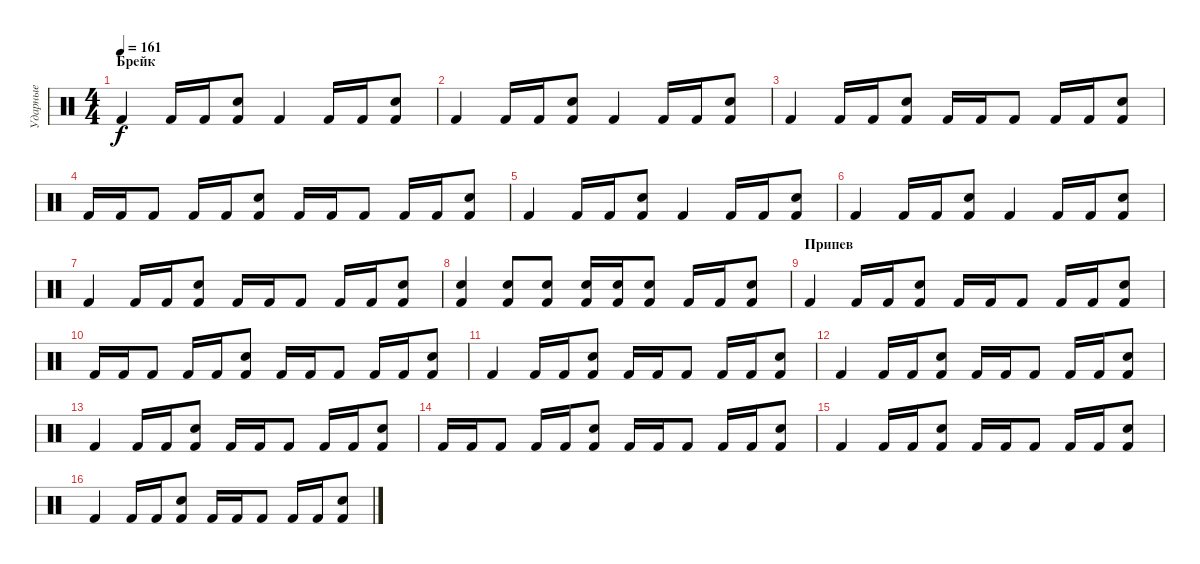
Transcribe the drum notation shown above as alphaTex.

\track ("Ударные" "Ударные") {instrument percussion}
\staff {score}
\articulation defaults
\ts (4 4)
\section ("" "Брейк")
\tempo 161
\clef neutral
\ks c "Kick (hit) 2".4{dy f} "Kick (hit) 2".16 "Kick (hit) 2".16
("Snare (hit) 2" "Kick (hit) 2").8 "Kick (hit) 2".4 "Kick (hit) 2".16 "Kick (hit) 2".16 ("Snare (hit) 2" "Kick (hit) 2").8 |
"Kick (hit) 2".4 "Kick (hit) 2".16 "Kick (hit) 2".16 ("Snare (hit) 2" "Kick (hit) 2").8 "Kick (hit) 2".4 "Kick (hit) 2".16 "Kick (hit) 2".16 ("Snare (hit) 2" "Kick (hit) 2").8 |
"Kick (hit) 2".4 "Kick (hit) 2".16 "Kick (hit) 2".16 ("Snare (hit) 2" "Kick (hit) 2").8 "Kick (hit) 2".16 "Kick (hit) 2".16 "Kick (hit) 2".8 "Kick (hit) 2".16 "Kick (hit) 2".16 ("Snare (hit) 2" "Kick (hit) 2").8 |
"Kick (hit) 2".16 "Kick (hit) 2".16 "Kick (hit) 2".8 "Kick (hit) 2".16 "Kick (hit) 2".16 ("Snare (hit) 2" "Kick (hit) 2").8 "Kick (hit) 2".16 "Kick (hit) 2".16 "Kick (hit) 2".8 "Kick (hit) 2".16 "Kick (hit) 2".16 ("Snare (hit) 2" "Kick (hit) 2").8 |
"Kick (hit) 2".4 "Kick (hit) 2".16 "Kick (hit) 2".16 ("Snare (hit) 2" "Kick (hit) 2").8 "Kick (hit) 2".4 "Kick (hit) 2".16 "Kick (hit) 2".16 ("Snare (hit) 2" "Kick (hit) 2").8 |
"Kick (hit) 2".4 "Kick (hit) 2".16 "Kick (hit) 2".16 ("Snare (hit) 2" "Kick (hit) 2").8 "Kick (hit) 2".4 "Kick (hit) 2".16 "Kick (hit) 2".16 ("Snare (hit) 2" "Kick (hit) 2").8 |
"Kick (hit) 2".4 "Kick (hit) 2".16 "Kick (hit) 2".16 ("Snare (hit) 2" "Kick (hit) 2").8 "Kick (hit) 2".16 "Kick (hit) 2".16 "Kick (hit) 2".8 "Kick (hit) 2".16 "Kick (hit) 2".16 ("Snare (hit) 2" "Kick (hit) 2").8 |
("Snare (hit) 2" "Kick (hit) 2").4 ("Snare (hit) 2" "Kick (hit) 2").8 ("Snare (hit) 2" "Kick (hit) 2").8 ("Snare (hit) 2" "Kick (hit) 2").16 ("Snare (hit) 2" "Kick (hit) 2").16 ("Snare (hit) 2" "Kick (hit) 2").8 "Kick (hit) 2".16 "Kick (hit) 2".16 ("Snare (hit) 2" "Kick (hit) 2").8 |
\section ("" "Припев")
"Kick (hit) 2".4 "Kick (hit) 2".16 "Kick (hit) 2".16 ("Snare (hit) 2" "Kick (hit) 2").8 "Kick (hit) 2".16 "Kick (hit) 2".16 "Kick (hit) 2".8 "Kick (hit) 2".16 "Kick (hit) 2".16 ("Snare (hit) 2" "Kick (hit) 2").8 |
"Kick (hit) 2".16 "Kick (hit) 2".16 "Kick (hit) 2".8 "Kick (hit) 2".16 "Kick (hit) 2".16 ("Snare (hit) 2" "Kick (hit) 2").8 "Kick (hit) 2".16 "Kick (hit) 2".16 "Kick (hit) 2".8 "Kick (hit) 2".16 "Kick (hit) 2".16 ("Snare (hit) 2" "Kick (hit) 2").8 |
"Kick (hit) 2".4 "Kick (hit) 2".16 "Kick (hit) 2".16 ("Snare (hit) 2" "Kick (hit) 2").8 "Kick (hit) 2".16 "Kick (hit) 2".16 "Kick (hit) 2".8 "Kick (hit) 2".16 "Kick (hit) 2".16 ("Snare (hit) 2" "Kick (hit) 2").8 |
"Kick (hit) 2".4 "Kick (hit) 2".16 "Kick (hit) 2".16 ("Snare (hit) 2" "Kick (hit) 2").8 "Kick (hit) 2".16 "Kick (hit) 2".16 "Kick (hit) 2".8 "Kick (hit) 2".16 "Kick (hit) 2".16 ("Snare (hit) 2" "Kick (hit) 2").8 |
"Kick (hit) 2".4 "Kick (hit) 2".16 "Kick (hit) 2".16 ("Snare (hit) 2" "Kick (hit) 2").8 "Kick (hit) 2".16 "Kick (hit) 2".16 "Kick (hit) 2".8 "Kick (hit) 2".16 "Kick (hit) 2".16 ("Snare (hit) 2" "Kick (hit) 2").8 |
"Kick (hit) 2".16 "Kick (hit) 2".16 "Kick (hit) 2".8 "Kick (hit) 2".16 "Kick (hit) 2".16 ("Snare (hit) 2" "Kick (hit) 2").8 "Kick (hit) 2".16 "Kick (hit) 2".16 "Kick (hit) 2".8 "Kick (hit) 2".16 "Kick (hit) 2".16 ("Snare (hit) 2" "Kick (hit) 2").8 |
"Kick (hit) 2".4 "Kick (hit) 2".16 "Kick (hit) 2".16 ("Snare (hit) 2" "Kick (hit) 2").8 "Kick (hit) 2".16 "Kick (hit) 2".16 "Kick (hit) 2".8 "Kick (hit) 2".16 "Kick (hit) 2".16 ("Snare (hit) 2" "Kick (hit) 2").8 |
"Kick (hit) 2".4 "Kick (hit) 2".16 "Kick (hit) 2".16 ("Snare (hit) 2" "Kick (hit) 2").8 "Kick (hit) 2".16 "Kick (hit) 2".16 "Kick (hit) 2".8 "Kick (hit) 2".16 "Kick (hit) 2".16 ("Snare (hit) 2" "Kick (hit) 2").8
